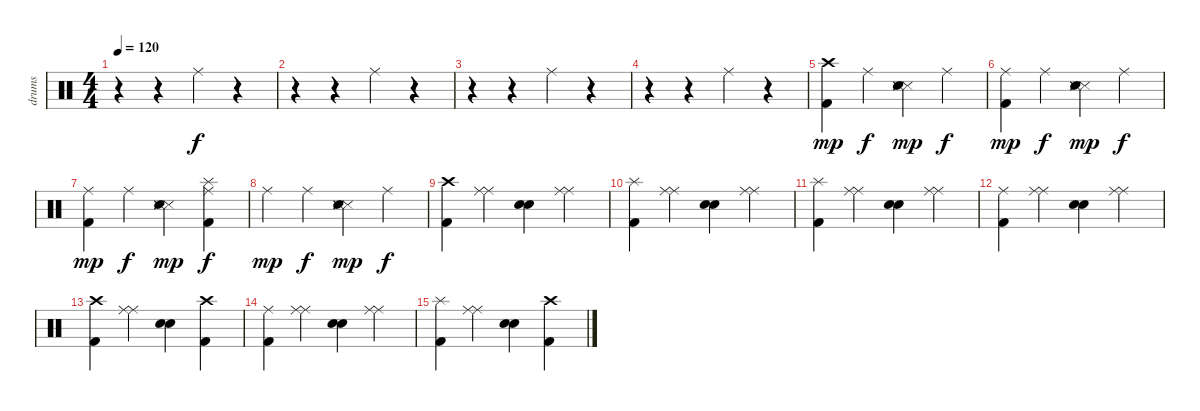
\track ("drums" "drums") {instrument percussion}
\staff {score}
\articulation defaults
\ts (4 4)
\tempo 120
\clef neutral
\ks c
r.4{dy mf} r.4 "Ride (middle)".4{dy f} r.4 |
r.4 r.4 "Ride (middle)".4 r.4 |
r.4 r.4 "Ride (middle)".4 r.4 |
r.4 r.4 "Ride (middle)".4 r.4 |
("Crash high (hit)" "Kick (hit) 2").4{dy mp} "Ride (middle)".4{dy f} ("Snare (side stick) 3" "Snare (side stick) 3" "Snare (side stick) 3" "Electric Snare (hit)").4{dy mp} "Ride (middle)".4{dy f} |
("Ride (middle)" "Kick (hit) 2").4{dy mp} "Ride (middle)".4{dy f} ("Snare (side stick) 3" "Snare (side stick) 3" "Snare (side stick) 3" "Electric Snare (hit)").4{dy mp} "Ride (middle)".4{dy f} |
("Ride (middle)" "Kick (hit) 2").4{dy mp} "Ride (middle)".4{dy f} ("Snare (side stick) 3" "Snare (side stick) 3" "Snare (side stick) 3" "Electric Snare (hit)").4{dy mp} ("Splash (hit)" "Ride (middle)" "Kick (hit) 2").4{dy f} |
"Ride (middle)".4{dy mp} "Ride (middle)".4{dy f} ("Snare (side stick) 3" "Snare (side stick) 3" "Snare (side stick) 3" "Electric Snare (hit)").4{dy mp} "Ride (middle)".4{dy f} |
("Crash high (hit)" "Kick (hit) 2").4 ("Ride (middle)" "Ride (middle)").4 ("Snare (hit) 2" "Snare (hit) 2").4 ("Ride (middle)" "Ride (middle)").4 |
("Splash (hit)" "Kick (hit) 2").4 ("Ride (middle)" "Ride (middle)").4 ("Snare (hit) 2" "Snare (hit) 2").4 ("Ride (middle)" "Ride (middle)").4 |
("Splash (hit)" "Kick (hit) 2").4 ("Ride (middle)" "Ride (middle)").4 ("Snare (hit) 2" "Snare (hit) 2").4 ("Ride (middle)" "Ride (middle)").4 |
("Ride (middle)" "Kick (hit) 2").4 ("Ride (middle)" "Ride (middle)").4 ("Snare (hit) 2" "Snare (hit) 2").4 ("Ride (middle)" "Ride (middle)").4 |
("Crash high (hit)" "Kick (hit) 2").4 ("Ride (middle)" "Ride (middle)").4 ("Snare (hit) 2" "Snare (hit) 2").4 ("Crash high (hit)" "Kick (hit) 2").4 |
("Ride (middle)" "Kick (hit) 2").4 ("Ride (middle)" "Ride (middle)").4 ("Snare (hit) 2" "Snare (hit) 2").4 ("Ride (middle)" "Ride (middle)").4 |
("Splash (hit)" "Kick (hit) 2").4 ("Ride (middle)" "Ride (middle)").4 ("Snare (hit) 2" "Snare (hit) 2").4 ("Crash high (hit)" "Kick (hit) 2").4
